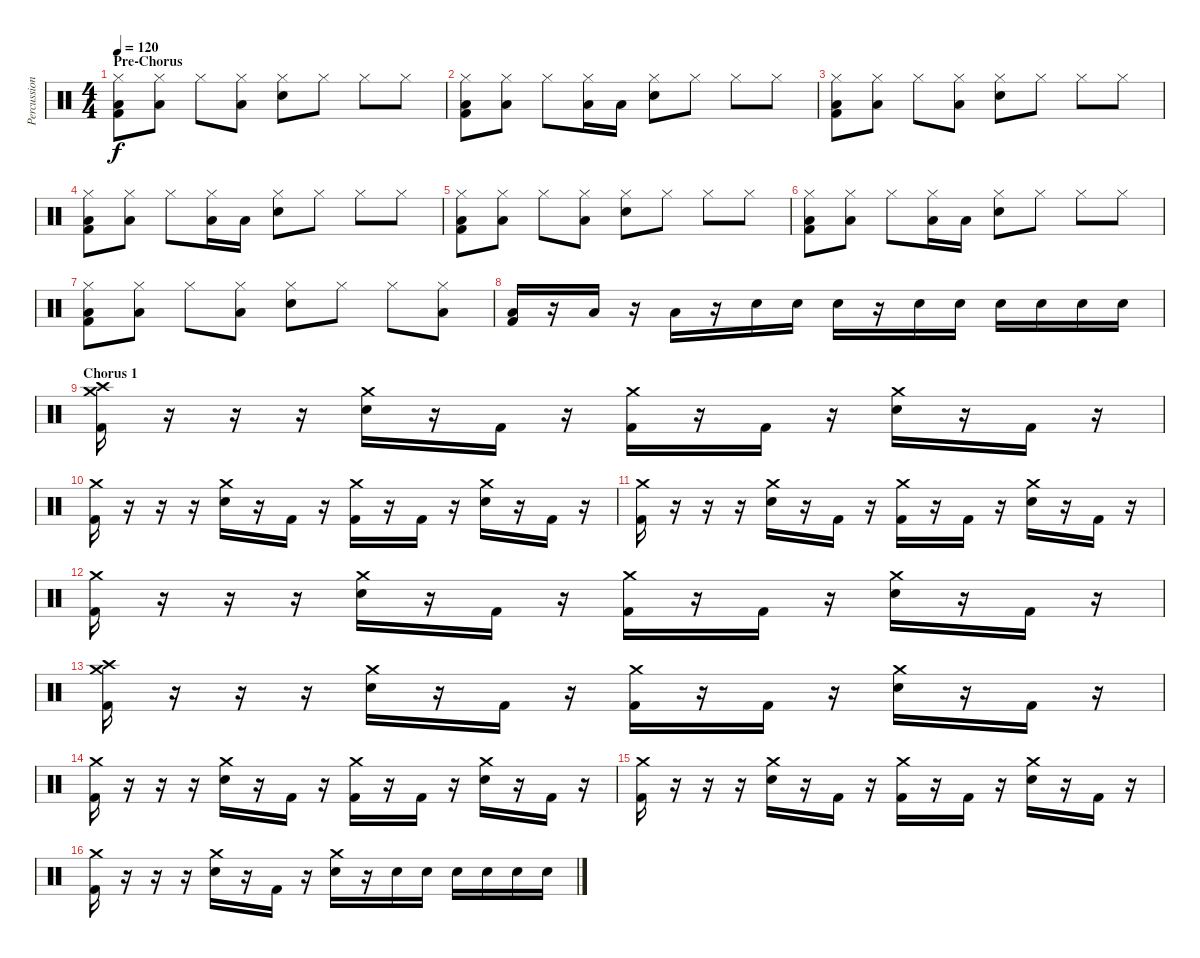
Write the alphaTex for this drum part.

\track ("Percussion" "Percussion") {instrument percussion}
\staff {score}
\articulation defaults
\ts (4 4)
\section ("" "Pre-Chorus")
\tempo 120
\clef neutral
\ks c
("Kick (hit) 2" "Low Tom (hit)" "Hi-Hat (closed)").8{dy f} ("Low Tom (hit)" "Hi-Hat (closed)").8 "Hi-Hat (closed)".8 ("Low Tom (hit)" "Hi-Hat (closed)").8 ("Snare (hit) 2" "Hi-Hat (closed)").8 "Hi-Hat (closed)".8 "Hi-Hat (closed)".8 "Hi-Hat (closed)".8 |
("Kick (hit) 2" "Low Tom (hit)" "Hi-Hat (closed)").8 ("Low Tom (hit)" "Hi-Hat (closed)").8 "Hi-Hat (closed)".8 ("Low Tom (hit)" "Hi-Hat (closed)").16 "Low Tom (hit)".16 ("Snare (hit) 2" "Hi-Hat (closed)").8 "Hi-Hat (closed)".8 "Hi-Hat (closed)".8 "Hi-Hat (closed)".8 |
("Kick (hit) 2" "Low Tom (hit)" "Hi-Hat (closed)").8 ("Low Tom (hit)" "Hi-Hat (closed)").8 "Hi-Hat (closed)".8 ("Low Tom (hit)" "Hi-Hat (closed)").8 ("Snare (hit) 2" "Hi-Hat (closed)").8 "Hi-Hat (closed)".8 "Hi-Hat (closed)".8 "Hi-Hat (closed)".8 |
("Kick (hit) 2" "Low Tom (hit)" "Hi-Hat (closed)").8 ("Low Tom (hit)" "Hi-Hat (closed)").8 "Hi-Hat (closed)".8 ("Low Tom (hit)" "Hi-Hat (closed)").16 "Low Tom (hit)".16 ("Snare (hit) 2" "Hi-Hat (closed)").8 "Hi-Hat (closed)".8 "Hi-Hat (closed)".8 "Hi-Hat (closed)".8 |
("Kick (hit) 2" "Low Tom (hit)" "Hi-Hat (closed)").8 ("Low Tom (hit)" "Hi-Hat (closed)").8 "Hi-Hat (closed)".8 ("Low Tom (hit)" "Hi-Hat (closed)").8 ("Snare (hit) 2" "Hi-Hat (closed)").8 "Hi-Hat (closed)".8 "Hi-Hat (closed)".8 "Hi-Hat (closed)".8 |
("Kick (hit) 2" "Low Tom (hit)" "Hi-Hat (closed)").8 ("Low Tom (hit)" "Hi-Hat (closed)").8 "Hi-Hat (closed)".8 ("Low Tom (hit)" "Hi-Hat (closed)").16 "Low Tom (hit)".16 ("Snare (hit) 2" "Hi-Hat (closed)").8 "Hi-Hat (closed)".8 "Hi-Hat (closed)".8 "Hi-Hat (closed)".8 |
("Kick (hit) 2" "Low Tom (hit)" "Hi-Hat (closed)").8 ("Low Tom (hit)" "Hi-Hat (closed)").8 "Hi-Hat (closed)".8 ("Low Tom (hit)" "Hi-Hat (closed)").8 ("Snare (hit) 2" "Hi-Hat (closed)").8 "Hi-Hat (closed)".8 "Hi-Hat (closed)".8 ("Low Tom (hit)" "Hi-Hat (closed)").8 |
("Kick (hit) 2" "Low Tom (hit)").16 r.16 "Low Tom (hit)".16 r.16 "Low Tom (hit)".16 r.16 "Snare (hit) 2".16 "Snare (hit) 2".16 "Snare (hit) 2".16 r.16 "Snare (hit) 2".16 "Snare (hit) 2".16 "Snare (hit) 2".16 "Snare (hit) 2".16 "Snare (hit) 2".16 "Snare (hit) 2".16 |
\section ("" "Chorus 1")
("Kick (hit) 2" "Crash medium (hit)" "Crash high (hit)").16 r.16 r.16 r.16 ("Snare (hit) 2" "Crash medium (hit)").16 r.16 "Kick (hit) 2".16 r.16 ("Kick (hit) 2" "Crash medium (hit)").16 r.16 "Kick (hit) 2".16 r.16 ("Snare (hit) 2" "Crash medium (hit)").16 r.16 "Kick (hit) 2".16 r.16 |
("Kick (hit) 2" "Crash medium (hit)").16 r.16 r.16 r.16 ("Snare (hit) 2" "Crash medium (hit)").16 r.16 "Kick (hit) 2".16 r.16 ("Kick (hit) 2" "Crash medium (hit)").16 r.16 "Kick (hit) 2".16 r.16 ("Snare (hit) 2" "Crash medium (hit)").16 r.16 "Kick (hit) 2".16 r.16 |
("Kick (hit) 2" "Crash medium (hit)").16 r.16 r.16 r.16 ("Snare (hit) 2" "Crash medium (hit)").16 r.16 "Kick (hit) 2".16 r.16 ("Kick (hit) 2" "Crash medium (hit)").16 r.16 "Kick (hit) 2".16 r.16 ("Snare (hit) 2" "Crash medium (hit)").16 r.16 "Kick (hit) 2".16 r.16 |
("Kick (hit) 2" "Crash medium (hit)").16 r.16 r.16 r.16 ("Snare (hit) 2" "Crash medium (hit)").16 r.16 "Kick (hit) 2".16 r.16 ("Kick (hit) 2" "Crash medium (hit)").16 r.16 "Kick (hit) 2".16 r.16 ("Snare (hit) 2" "Crash medium (hit)").16 r.16 "Kick (hit) 2".16 r.16 |
("Kick (hit) 2" "Crash medium (hit)" "Crash high (hit)").16 r.16 r.16 r.16 ("Snare (hit) 2" "Crash medium (hit)").16 r.16 "Kick (hit) 2".16 r.16 ("Kick (hit) 2" "Crash medium (hit)").16 r.16 "Kick (hit) 2".16 r.16 ("Snare (hit) 2" "Crash medium (hit)").16 r.16 "Kick (hit) 2".16 r.16 |
("Kick (hit) 2" "Crash medium (hit)").16 r.16 r.16 r.16 ("Snare (hit) 2" "Crash medium (hit)").16 r.16 "Kick (hit) 2".16 r.16 ("Kick (hit) 2" "Crash medium (hit)").16 r.16 "Kick (hit) 2".16 r.16 ("Snare (hit) 2" "Crash medium (hit)").16 r.16 "Kick (hit) 2".16 r.16 |
("Kick (hit) 2" "Crash medium (hit)").16 r.16 r.16 r.16 ("Snare (hit) 2" "Crash medium (hit)").16 r.16 "Kick (hit) 2".16 r.16 ("Kick (hit) 2" "Crash medium (hit)").16 r.16 "Kick (hit) 2".16 r.16 ("Snare (hit) 2" "Crash medium (hit)").16 r.16 "Kick (hit) 2".16 r.16 |
("Kick (hit) 2" "Crash medium (hit)").16 r.16 r.16 r.16 ("Snare (hit) 2" "Crash medium (hit)").16 r.16 "Kick (hit) 2".16 r.16 ("Snare (hit) 2" "Crash medium (hit)").16 r.16 "Snare (hit) 2".16 "Snare (hit) 2".16 "Snare (hit) 2".16 "Snare (hit) 2".16 "Snare (hit) 2".16 "Snare (hit) 2".16
